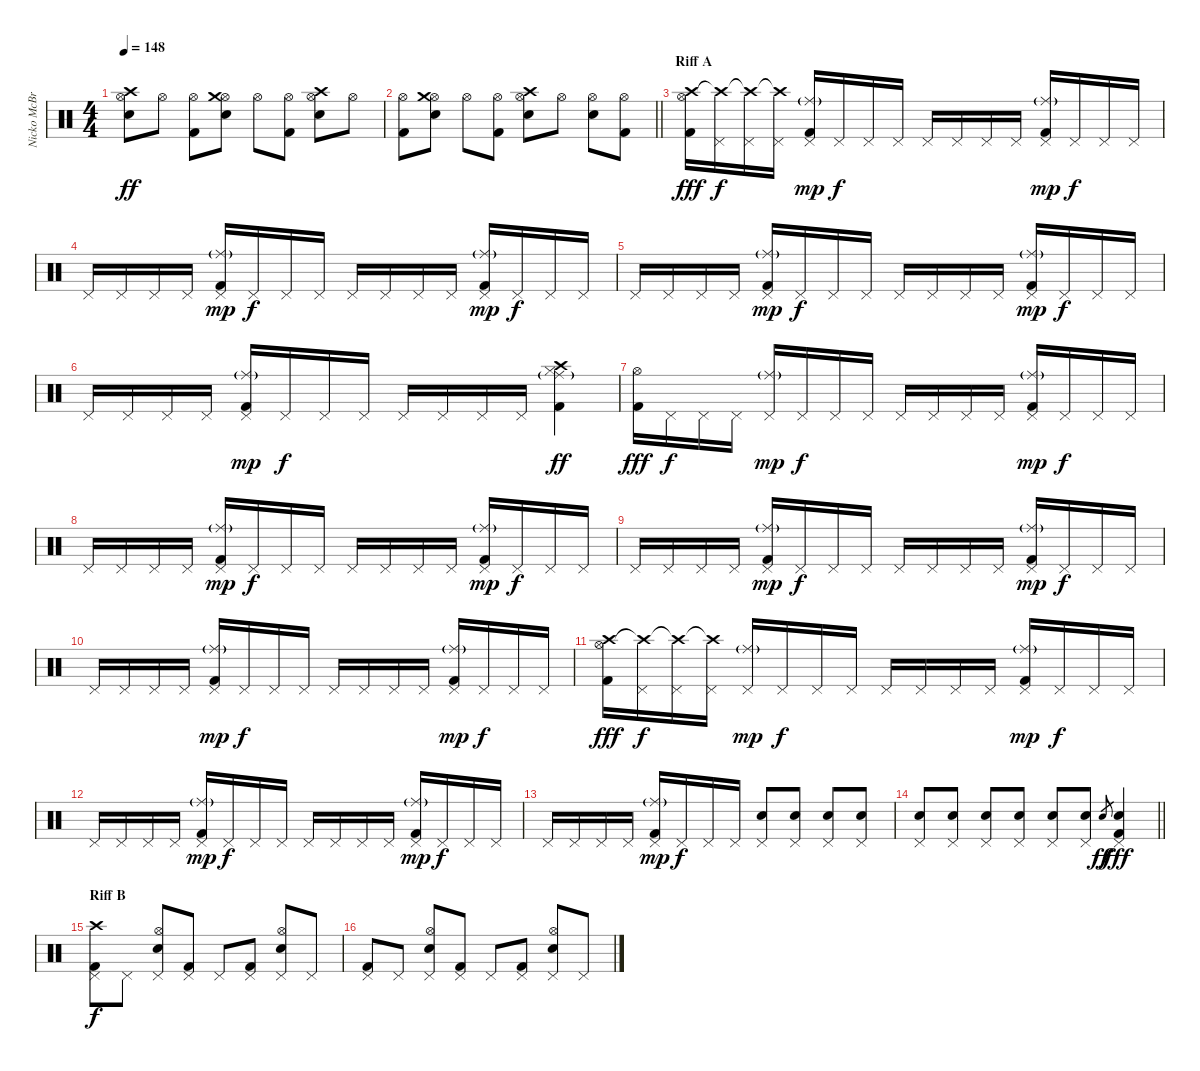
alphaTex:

\track ("Nicko McBrain" "Nicko McBr") {instrument percussion}
\staff {score}
\articulation defaults
\ts (4 4)
\tempo 148
\clef neutral
\ks c
("Snare (hit) 2" "Hi-Hat (open)" "Crash high (hit)").8{dy ff} "Hi-Hat (open)".8 ("Kick (hit) 2" "Hi-Hat (open)").8 ("Snare (hit) 2" "Hi-Hat (open)" "Crash medium (hit)").8 "Hi-Hat (open)".8 ("Kick (hit) 2" "Hi-Hat (open)").8 ("Snare (hit) 2" "Hi-Hat (open)" "Crash high (hit)").8 "Hi-Hat (open)".8 |
\barLineRight lightlight
("Kick (hit) 2" "Hi-Hat (open)").8 ("Snare (hit) 2" "Hi-Hat (open)" "Crash medium (hit)").8 "Hi-Hat (open)".8 ("Kick (hit) 2" "Hi-Hat (open)").8 ("Snare (hit) 2" "Hi-Hat (open)" "Crash high (hit)").8 "Hi-Hat (open)".8 ("Snare (hit) 2" "Hi-Hat (open)").8 ("Kick (hit) 2" "Hi-Hat (open)").8 |
\section ("" "Riff A")
("Kick (hit) 2" "Hi-Hat (open)" "Crash high (hit)").16{dy fff} ("Pedal Hi-Hat (hit)" "Crash high (hit)"{t}).16{dy f} ("Pedal Hi-Hat (hit)" "Crash high (hit)"{t}).16 ("Pedal Hi-Hat (hit)" "Crash high (hit)"{t}).16 ("Kick (hit) 2" "Pedal Hi-Hat (hit)" "Ride (middle)"{g}).16{dy mp} "Pedal Hi-Hat (hit)".16{dy f} "Pedal Hi-Hat (hit)".16 "Pedal Hi-Hat (hit)".16 "Pedal Hi-Hat (hit)".16 "Pedal Hi-Hat (hit)".16 "Pedal Hi-Hat (hit)".16 "Pedal Hi-Hat (hit)".16 ("Kick (hit) 2" "Pedal Hi-Hat (hit)" "Ride (middle)"{g}).16{dy mp} "Pedal Hi-Hat (hit)".16{dy f} "Pedal Hi-Hat (hit)".16 "Pedal Hi-Hat (hit)".16 |
"Pedal Hi-Hat (hit)".16 "Pedal Hi-Hat (hit)".16 "Pedal Hi-Hat (hit)".16 "Pedal Hi-Hat (hit)".16 ("Kick (hit) 2" "Pedal Hi-Hat (hit)" "Ride (middle)"{g}).16{dy mp} "Pedal Hi-Hat (hit)".16{dy f} "Pedal Hi-Hat (hit)".16 "Pedal Hi-Hat (hit)".16 "Pedal Hi-Hat (hit)".16 "Pedal Hi-Hat (hit)".16 "Pedal Hi-Hat (hit)".16 "Pedal Hi-Hat (hit)".16 ("Kick (hit) 2" "Pedal Hi-Hat (hit)" "Ride (middle)"{g}).16{dy mp} "Pedal Hi-Hat (hit)".16{dy f} "Pedal Hi-Hat (hit)".16 "Pedal Hi-Hat (hit)".16 |
"Pedal Hi-Hat (hit)".16 "Pedal Hi-Hat (hit)".16 "Pedal Hi-Hat (hit)".16 "Pedal Hi-Hat (hit)".16 ("Kick (hit) 2" "Pedal Hi-Hat (hit)" "Ride (middle)"{g}).16{dy mp} "Pedal Hi-Hat (hit)".16{dy f} "Pedal Hi-Hat (hit)".16 "Pedal Hi-Hat (hit)".16 "Pedal Hi-Hat (hit)".16 "Pedal Hi-Hat (hit)".16 "Pedal Hi-Hat (hit)".16 "Pedal Hi-Hat (hit)".16 ("Kick (hit) 2" "Pedal Hi-Hat (hit)" "Ride (middle)"{g}).16{dy mp} "Pedal Hi-Hat (hit)".16{dy f} "Pedal Hi-Hat (hit)".16 "Pedal Hi-Hat (hit)".16 |
"Pedal Hi-Hat (hit)".16 "Pedal Hi-Hat (hit)".16 "Pedal Hi-Hat (hit)".16 "Pedal Hi-Hat (hit)".16 ("Kick (hit) 2" "Pedal Hi-Hat (hit)" "Ride (middle)"{g}).16{dy mp} "Pedal Hi-Hat (hit)".16{dy f} "Pedal Hi-Hat (hit)".16 "Pedal Hi-Hat (hit)".16 "Pedal Hi-Hat (hit)".16 "Pedal Hi-Hat (hit)".16 "Pedal Hi-Hat (hit)".16 "Pedal Hi-Hat (hit)".16 ("Kick (hit) 2" "Hi-Hat (closed)" "Ride (middle)"{g} "Crash high (hit)").4{dy ff} |
("Kick (hit) 2" "Hi-Hat (open)").16{dy fff} "Pedal Hi-Hat (hit)".16{dy f} "Pedal Hi-Hat (hit)".16 "Pedal Hi-Hat (hit)".16 ("Pedal Hi-Hat (hit)" "Ride (middle)"{g}).16{dy mp} "Pedal Hi-Hat (hit)".16{dy f} "Pedal Hi-Hat (hit)".16 "Pedal Hi-Hat (hit)".16 "Pedal Hi-Hat (hit)".16 "Pedal Hi-Hat (hit)".16 "Pedal Hi-Hat (hit)".16 "Pedal Hi-Hat (hit)".16 ("Kick (hit) 2" "Pedal Hi-Hat (hit)" "Ride (middle)"{g}).16{dy mp} "Pedal Hi-Hat (hit)".16{dy f} "Pedal Hi-Hat (hit)".16 "Pedal Hi-Hat (hit)".16 |
"Pedal Hi-Hat (hit)".16 "Pedal Hi-Hat (hit)".16 "Pedal Hi-Hat (hit)".16 "Pedal Hi-Hat (hit)".16 ("Kick (hit) 2" "Pedal Hi-Hat (hit)" "Ride (middle)"{g}).16{dy mp} "Pedal Hi-Hat (hit)".16{dy f} "Pedal Hi-Hat (hit)".16 "Pedal Hi-Hat (hit)".16 "Pedal Hi-Hat (hit)".16 "Pedal Hi-Hat (hit)".16 "Pedal Hi-Hat (hit)".16 "Pedal Hi-Hat (hit)".16 ("Kick (hit) 2" "Pedal Hi-Hat (hit)" "Ride (middle)"{g}).16{dy mp} "Pedal Hi-Hat (hit)".16{dy f} "Pedal Hi-Hat (hit)".16 "Pedal Hi-Hat (hit)".16 |
"Pedal Hi-Hat (hit)".16 "Pedal Hi-Hat (hit)".16 "Pedal Hi-Hat (hit)".16 "Pedal Hi-Hat (hit)".16 ("Kick (hit) 2" "Pedal Hi-Hat (hit)" "Ride (middle)"{g}).16{dy mp} "Pedal Hi-Hat (hit)".16{dy f} "Pedal Hi-Hat (hit)".16 "Pedal Hi-Hat (hit)".16 "Pedal Hi-Hat (hit)".16 "Pedal Hi-Hat (hit)".16 "Pedal Hi-Hat (hit)".16 "Pedal Hi-Hat (hit)".16 ("Kick (hit) 2" "Pedal Hi-Hat (hit)" "Ride (middle)"{g}).16{dy mp} "Pedal Hi-Hat (hit)".16{dy f} "Pedal Hi-Hat (hit)".16 "Pedal Hi-Hat (hit)".16 |
"Pedal Hi-Hat (hit)".16 "Pedal Hi-Hat (hit)".16 "Pedal Hi-Hat (hit)".16 "Pedal Hi-Hat (hit)".16 ("Kick (hit) 2" "Pedal Hi-Hat (hit)" "Ride (middle)"{g}).16{dy mp} "Pedal Hi-Hat (hit)".16{dy f} "Pedal Hi-Hat (hit)".16 "Pedal Hi-Hat (hit)".16 "Pedal Hi-Hat (hit)".16 "Pedal Hi-Hat (hit)".16 "Pedal Hi-Hat (hit)".16 "Pedal Hi-Hat (hit)".16 ("Kick (hit) 2" "Pedal Hi-Hat (hit)" "Ride (middle)"{g}).16{dy mp} "Pedal Hi-Hat (hit)".16{dy f} "Pedal Hi-Hat (hit)".16 "Pedal Hi-Hat (hit)".16 |
("Kick (hit) 2" "Hi-Hat (open)" "Crash high (hit)").16{dy fff} ("Pedal Hi-Hat (hit)" "Crash high (hit)"{t}).16{dy f} ("Pedal Hi-Hat (hit)" "Crash high (hit)"{t}).16 ("Pedal Hi-Hat (hit)" "Crash high (hit)"{t}).16 ("Pedal Hi-Hat (hit)" "Ride (middle)"{g}).16{dy mp} "Pedal Hi-Hat (hit)".16{dy f} "Pedal Hi-Hat (hit)".16 "Pedal Hi-Hat (hit)".16 "Pedal Hi-Hat (hit)".16 "Pedal Hi-Hat (hit)".16 "Pedal Hi-Hat (hit)".16 "Pedal Hi-Hat (hit)".16 ("Kick (hit) 2" "Pedal Hi-Hat (hit)" "Ride (middle)"{g}).16{dy mp} "Pedal Hi-Hat (hit)".16{dy f} "Pedal Hi-Hat (hit)".16 "Pedal Hi-Hat (hit)".16 |
"Pedal Hi-Hat (hit)".16 "Pedal Hi-Hat (hit)".16 "Pedal Hi-Hat (hit)".16 "Pedal Hi-Hat (hit)".16 ("Kick (hit) 2" "Pedal Hi-Hat (hit)" "Ride (middle)"{g}).16{dy mp} "Pedal Hi-Hat (hit)".16{dy f} "Pedal Hi-Hat (hit)".16 "Pedal Hi-Hat (hit)".16 "Pedal Hi-Hat (hit)".16 "Pedal Hi-Hat (hit)".16 "Pedal Hi-Hat (hit)".16 "Pedal Hi-Hat (hit)".16 ("Kick (hit) 2" "Pedal Hi-Hat (hit)" "Ride (middle)"{g}).16{dy mp} "Pedal Hi-Hat (hit)".16{dy f} "Pedal Hi-Hat (hit)".16 "Pedal Hi-Hat (hit)".16 |
"Pedal Hi-Hat (hit)".16 "Pedal Hi-Hat (hit)".16 "Pedal Hi-Hat (hit)".16 "Pedal Hi-Hat (hit)".16 ("Kick (hit) 2" "Pedal Hi-Hat (hit)" "Ride (middle)"{g}).16{dy mp} "Pedal Hi-Hat (hit)".16{dy f} "Pedal Hi-Hat (hit)".16 "Pedal Hi-Hat (hit)".16 ("Snare (hit) 2" "Pedal Hi-Hat (hit)").8{volume 11} ("Snare (hit) 2" "Pedal Hi-Hat (hit)").8{volume 14} ("Snare (hit) 2" "Pedal Hi-Hat (hit)").8 ("Snare (hit) 2" "Pedal Hi-Hat (hit)").8 |
\barLineRight lightlight
("Snare (hit) 2" "Pedal Hi-Hat (hit)").8 ("Snare (hit) 2" "Pedal Hi-Hat (hit)").8 ("Snare (hit) 2" "Pedal Hi-Hat (hit)").8 ("Snare (hit) 2" "Pedal Hi-Hat (hit)").8 ("Snare (hit) 2" "Pedal Hi-Hat (hit)").8{volume 14} ("Snare (hit) 2" "Pedal Hi-Hat (hit)").8 "Snare (hit) 2".8{gr dy ff} ("Snare (hit) 2" "Pedal Hi-Hat (hit)" "Kick (hit) 2").4{dy fff} |
\section ("" "Riff B")
("Kick (hit) 2" "Pedal Hi-Hat (hit)" "Crash high (hit)").8{dy f volume 14} "Pedal Hi-Hat (hit)".8 ("Snare (hit) 2" "Pedal Hi-Hat (hit)" "Hi-Hat (open)").8 ("Kick (hit) 2" "Pedal Hi-Hat (hit)").8 "Pedal Hi-Hat (hit)".8 ("Kick (hit) 2" "Pedal Hi-Hat (hit)").8 ("Snare (hit) 2" "Pedal Hi-Hat (hit)" "Hi-Hat (open)").8 "Pedal Hi-Hat (hit)".8 |
("Kick (hit) 2" "Pedal Hi-Hat (hit)").8 "Pedal Hi-Hat (hit)".8 ("Snare (hit) 2" "Pedal Hi-Hat (hit)" "Hi-Hat (open)").8 ("Kick (hit) 2" "Pedal Hi-Hat (hit)").8 "Pedal Hi-Hat (hit)".8 ("Kick (hit) 2" "Pedal Hi-Hat (hit)").8 ("Snare (hit) 2" "Pedal Hi-Hat (hit)" "Hi-Hat (open)").8 "Pedal Hi-Hat (hit)".8
